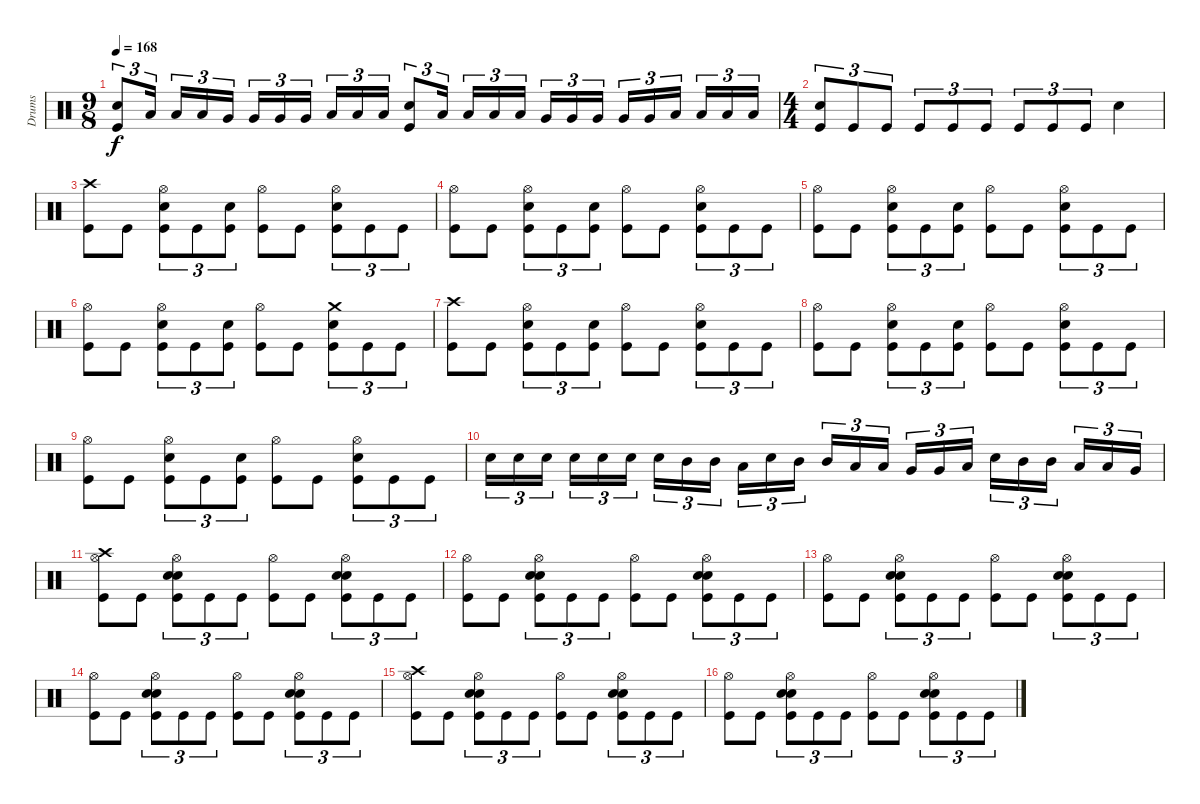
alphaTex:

\track ("Drums" "Drums") {instrument percussion}
\staff {score}
\articulation defaults
\ts (9 8)
\tempo 168
\clef neutral
\ks c
("Electric Snare (hit)" "Kick (hit)").8{tu (3 2) dy f} "Low Tom (hit)".16{tu (3 2)} "Low Tom (hit)".16{tu (3 2)} "Low Tom (hit)".16{tu (3 2)} "Very Low Tom (hit)".16{tu (3 2)} "Very Low Tom (hit)".16{tu (3 2)} "Very Low Tom (hit)".16{tu (3 2)} "Very Low Tom (hit)".16{tu (3 2)} "Low Floor Tom (hit)".16{tu (3 2)} "Low Floor Tom (hit)".16{tu (3 2)} "Low Floor Tom (hit)".16{tu (3 2)} ("Electric Snare (hit)" "Kick (hit)").8{tu (3 2)} "Low Tom (hit)".16{tu (3 2)} "Low Tom (hit)".16{tu (3 2)} "Low Tom (hit)".16{tu (3 2)} "Low Tom (hit)".16{tu (3 2)} "Very Low Tom (hit)".16{tu (3 2)} "Very Low Tom (hit)".16{tu (3 2)} "Very Low Tom (hit)".16{tu (3 2)} "Very Low Tom (hit)".16{tu (3 2)} "Very Low Tom (hit)".16{tu (3 2)} "Low Floor Tom (hit)".16{tu (3 2)} "Low Floor Tom (hit)".16{tu (3 2)} "Low Floor Tom (hit)".16{tu (3 2)} "Low Floor Tom (hit)".16{tu (3 2)} |
\ts (4 4)
("Electric Snare (hit)" "Kick (hit)").8{tu (3 2)} "Kick (hit)".8{tu (3 2)} "Kick (hit)".8{tu (3 2)} "Kick (hit)".8{tu (3 2)} "Kick (hit)".8{tu (3 2)} "Kick (hit)".8{tu (3 2)} "Kick (hit)".8{tu (3 2)} "Kick (hit)".8{tu (3 2)} "Kick (hit)".8{tu (3 2)} "Electric Snare (hit)".4 |
("Crash high (hit)" "Kick (hit)").8 "Kick (hit)".8 ("Electric Snare (hit)" "Hi-Hat (open)" "Kick (hit)").8{tu (3 2)} "Kick (hit)".8{tu (3 2)} ("Electric Snare (hit)" "Kick (hit)").8{tu (3 2)} ("Hi-Hat (open)" "Kick (hit)").8 "Kick (hit)".8 ("Electric Snare (hit)" "Hi-Hat (open)" "Kick (hit)").8{tu (3 2)} "Kick (hit)".8{tu (3 2)} "Kick (hit)".8{tu (3 2)} |
("Hi-Hat (open)" "Kick (hit)").8 "Kick (hit)".8 ("Electric Snare (hit)" "Hi-Hat (open)" "Kick (hit)").8{tu (3 2)} "Kick (hit)".8{tu (3 2)} ("Electric Snare (hit)" "Kick (hit)").8{tu (3 2)} ("Hi-Hat (open)" "Kick (hit)").8 "Kick (hit)".8 ("Electric Snare (hit)" "Hi-Hat (open)" "Kick (hit)").8{tu (3 2)} "Kick (hit)".8{tu (3 2)} "Kick (hit)".8{tu (3 2)} |
("Hi-Hat (open)" "Kick (hit)").8 "Kick (hit)".8 ("Electric Snare (hit)" "Hi-Hat (open)" "Kick (hit)").8{tu (3 2)} "Kick (hit)".8{tu (3 2)} ("Electric Snare (hit)" "Kick (hit)").8{tu (3 2)} ("Hi-Hat (open)" "Kick (hit)").8 "Kick (hit)".8 ("Electric Snare (hit)" "Hi-Hat (open)" "Kick (hit)").8{tu (3 2)} "Kick (hit)".8{tu (3 2)} "Kick (hit)".8{tu (3 2)} |
("Hi-Hat (open)" "Kick (hit)").8 "Kick (hit)".8 ("Electric Snare (hit)" "Hi-Hat (open)" "Kick (hit)").8{tu (3 2)} "Kick (hit)".8{tu (3 2)} ("Electric Snare (hit)" "Kick (hit)").8{tu (3 2)} ("Hi-Hat (open)" "Kick (hit)").8 "Kick (hit)".8 ("Electric Snare (hit)" "Crash medium (hit)" "Kick (hit)").8{tu (3 2)} "Kick (hit)".8{tu (3 2)} "Kick (hit)".8{tu (3 2)} |
("Crash high (hit)" "Kick (hit)").8 "Kick (hit)".8 ("Electric Snare (hit)" "Hi-Hat (open)" "Kick (hit)").8{tu (3 2)} "Kick (hit)".8{tu (3 2)} ("Electric Snare (hit)" "Kick (hit)").8{tu (3 2)} ("Hi-Hat (open)" "Kick (hit)").8 "Kick (hit)".8 ("Electric Snare (hit)" "Hi-Hat (open)" "Kick (hit)").8{tu (3 2)} "Kick (hit)".8{tu (3 2)} "Kick (hit)".8{tu (3 2)} |
("Hi-Hat (open)" "Kick (hit)").8 "Kick (hit)".8 ("Electric Snare (hit)" "Hi-Hat (open)" "Kick (hit)").8{tu (3 2)} "Kick (hit)".8{tu (3 2)} ("Electric Snare (hit)" "Kick (hit)").8{tu (3 2)} ("Hi-Hat (open)" "Kick (hit)").8 "Kick (hit)".8 ("Electric Snare (hit)" "Hi-Hat (open)" "Kick (hit)").8{tu (3 2)} "Kick (hit)".8{tu (3 2)} "Kick (hit)".8{tu (3 2)} |
("Hi-Hat (open)" "Kick (hit)").8 "Kick (hit)".8 ("Electric Snare (hit)" "Hi-Hat (open)" "Kick (hit)").8{tu (3 2)} "Kick (hit)".8{tu (3 2)} ("Electric Snare (hit)" "Kick (hit)").8{tu (3 2)} ("Hi-Hat (open)" "Kick (hit)").8 "Kick (hit)".8 ("Electric Snare (hit)" "Hi-Hat (open)" "Kick (hit)").8{tu (3 2)} "Kick (hit)".8{tu (3 2)} "Kick (hit)".8{tu (3 2)} |
"Electric Snare (hit)".16{tu (3 2)} "Electric Snare (hit)".16{tu (3 2)} "Electric Snare (hit)".16{tu (3 2)} "Electric Snare (hit)".16{tu (3 2)} "Electric Snare (hit)".16{tu (3 2)} "Electric Snare (hit)".16{tu (3 2)} "Electric Snare (hit)".16{tu (3 2)} "Mid Tom (hit)".16{tu (3 2)} "Mid Tom (hit)".16{tu (3 2)} "Low Tom (hit)".16{tu (3 2)} "Electric Snare (hit)".16{tu (3 2)} "Mid Tom (hit)".16{tu (3 2)} "Mid Tom (hit)".16{tu (3 2)} "Low Tom (hit)".16{tu (3 2)} "Low Tom (hit)".16{tu (3 2)} "Very Low Tom (hit)".16{tu (3 2)} "Very Low Tom (hit)".16{tu (3 2)} "Low Floor Tom (hit)".16{tu (3 2)} "Electric Snare (hit)".16{tu (3 2)} "Mid Tom (hit)".16{tu (3 2)} "Mid Tom (hit)".16{tu (3 2)} "Low Tom (hit)".16{tu (3 2)} "Low Tom (hit)".16{tu (3 2)} "Very Low Tom (hit)".16{tu (3 2)} |
("Crash high (hit)" "Hi-Hat (open)" "Kick (hit)").8 "Kick (hit)".8 ("Electric Snare (hit)" "Electric Snare (hit)" "Hi-Hat (open)" "Kick (hit)").8{tu (3 2)} "Kick (hit)".8{tu (3 2)} "Kick (hit)".8{tu (3 2)} ("Hi-Hat (open)" "Kick (hit)").8 "Kick (hit)".8 ("Electric Snare (hit)" "Electric Snare (hit)" "Hi-Hat (open)" "Kick (hit)").8{tu (3 2)} "Kick (hit)".8{tu (3 2)} "Kick (hit)".8{tu (3 2)} |
("Hi-Hat (open)" "Kick (hit)").8 "Kick (hit)".8 ("Electric Snare (hit)" "Electric Snare (hit)" "Hi-Hat (open)" "Kick (hit)").8{tu (3 2)} "Kick (hit)".8{tu (3 2)} "Kick (hit)".8{tu (3 2)} ("Hi-Hat (open)" "Kick (hit)").8 "Kick (hit)".8 ("Electric Snare (hit)" "Electric Snare (hit)" "Hi-Hat (open)" "Kick (hit)").8{tu (3 2)} "Kick (hit)".8{tu (3 2)} "Kick (hit)".8{tu (3 2)} |
("Hi-Hat (open)" "Kick (hit)").8 "Kick (hit)".8 ("Electric Snare (hit)" "Electric Snare (hit)" "Hi-Hat (open)" "Kick (hit)").8{tu (3 2)} "Kick (hit)".8{tu (3 2)} "Kick (hit)".8{tu (3 2)} ("Hi-Hat (open)" "Kick (hit)").8 "Kick (hit)".8 ("Electric Snare (hit)" "Electric Snare (hit)" "Hi-Hat (open)" "Kick (hit)").8{tu (3 2)} "Kick (hit)".8{tu (3 2)} "Kick (hit)".8{tu (3 2)} |
("Hi-Hat (open)" "Kick (hit)").8 "Kick (hit)".8 ("Electric Snare (hit)" "Electric Snare (hit)" "Hi-Hat (open)" "Kick (hit)").8{tu (3 2)} "Kick (hit)".8{tu (3 2)} "Kick (hit)".8{tu (3 2)} ("Hi-Hat (open)" "Kick (hit)").8 "Kick (hit)".8 ("Electric Snare (hit)" "Electric Snare (hit)" "Hi-Hat (open)" "Kick (hit)").8{tu (3 2)} "Kick (hit)".8{tu (3 2)} "Kick (hit)".8{tu (3 2)} |
("Crash high (hit)" "Hi-Hat (open)" "Kick (hit)").8 "Kick (hit)".8 ("Electric Snare (hit)" "Electric Snare (hit)" "Hi-Hat (open)" "Kick (hit)").8{tu (3 2)} "Kick (hit)".8{tu (3 2)} "Kick (hit)".8{tu (3 2)} ("Hi-Hat (open)" "Kick (hit)").8 "Kick (hit)".8 ("Electric Snare (hit)" "Electric Snare (hit)" "Hi-Hat (open)" "Kick (hit)").8{tu (3 2)} "Kick (hit)".8{tu (3 2)} "Kick (hit)".8{tu (3 2)} |
("Hi-Hat (open)" "Kick (hit)").8 "Kick (hit)".8 ("Electric Snare (hit)" "Electric Snare (hit)" "Hi-Hat (open)" "Kick (hit)").8{tu (3 2)} "Kick (hit)".8{tu (3 2)} "Kick (hit)".8{tu (3 2)} ("Hi-Hat (open)" "Kick (hit)").8 "Kick (hit)".8 ("Electric Snare (hit)" "Electric Snare (hit)" "Hi-Hat (open)" "Kick (hit)").8{tu (3 2)} "Kick (hit)".8{tu (3 2)} "Kick (hit)".8{tu (3 2)}
